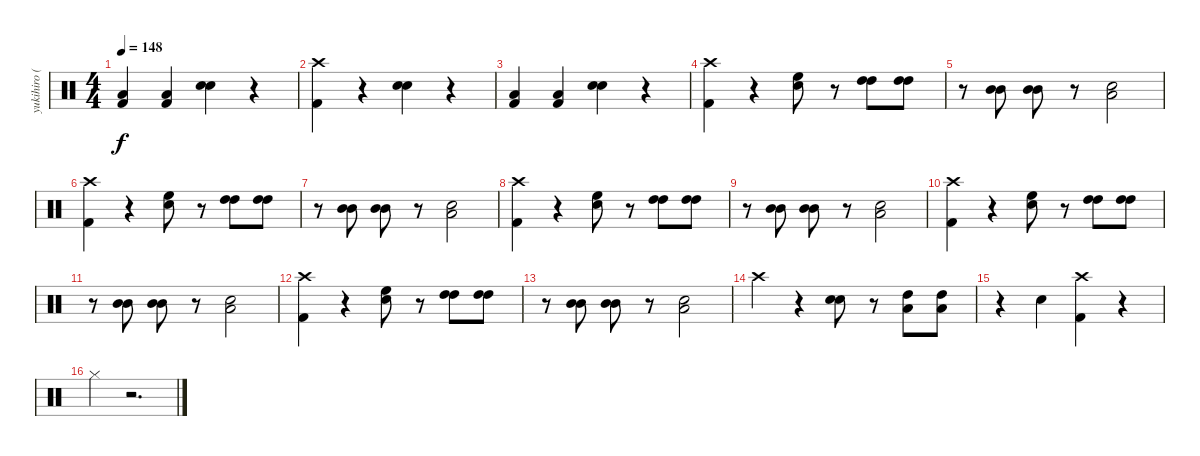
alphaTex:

\track ("yukihiro (Drums)" "yukihiro (") {instrument percussion}
\staff {score}
\articulation defaults
\ts (4 4)
\tempo 148
\clef neutral
\ks c
("Low Tom (hit)" "Kick (hit) 2").4{dy f} ("Low Tom (hit)" "Kick (hit) 2").4 ("Electric Snare (hit)" "Electric Snare (hit)").4 r.4 |
("Crash high (hit)" "Kick (hit) 2").4 r.4 ("Electric Snare (hit)" "Electric Snare (hit)").4 r.4 |
("Low Tom (hit)" "Kick (hit) 2").4 ("Low Tom (hit)" "Kick (hit) 2").4 ("Electric Snare (hit)" "Electric Snare (hit)").4 r.4 |
("Crash high (hit)" "Kick (hit) 2").4 r.4 ("High Floor Tom (hit)" "Electric Snare (hit)").8 r.8 ("High Tom (hit)" "High Tom (hit)").8 ("High Tom (hit)" "High Tom (hit)").8 |
r.8 ("Mid Tom (hit)" "Mid Tom (hit)").8 ("Mid Tom (hit)" "Mid Tom (hit)").8 r.8 ("Electric Snare (hit)" "Low Tom (hit)").2 |
("Crash high (hit)" "Kick (hit) 2").4 r.4 ("High Floor Tom (hit)" "Electric Snare (hit)").8 r.8 ("High Tom (hit)" "High Tom (hit)").8 ("High Tom (hit)" "High Tom (hit)").8 |
r.8 ("Mid Tom (hit)" "Mid Tom (hit)").8 ("Mid Tom (hit)" "Mid Tom (hit)").8 r.8 ("Electric Snare (hit)" "Low Tom (hit)").2 |
("Crash high (hit)" "Kick (hit) 2").4 r.4 ("High Floor Tom (hit)" "Electric Snare (hit)").8 r.8 ("High Tom (hit)" "High Tom (hit)").8 ("High Tom (hit)" "High Tom (hit)").8 |
r.8 ("Mid Tom (hit)" "Mid Tom (hit)").8 ("Mid Tom (hit)" "Mid Tom (hit)").8 r.8 ("Electric Snare (hit)" "Low Tom (hit)").2 |
("Crash high (hit)" "Kick (hit) 2").4 r.4 ("High Floor Tom (hit)" "Electric Snare (hit)").8 r.8 ("High Tom (hit)" "High Tom (hit)").8 ("High Tom (hit)" "High Tom (hit)").8 |
r.8 ("Mid Tom (hit)" "Mid Tom (hit)").8 ("Mid Tom (hit)" "Mid Tom (hit)").8 r.8 ("Electric Snare (hit)" "Low Tom (hit)").2 |
("Crash high (hit)" "Kick (hit) 2").4 r.4 ("High Floor Tom (hit)" "Electric Snare (hit)").8 r.8 ("High Tom (hit)" "High Tom (hit)").8 ("High Tom (hit)" "High Tom (hit)").8 |
r.8 ("Mid Tom (hit)" "Mid Tom (hit)").8 ("Mid Tom (hit)" "Mid Tom (hit)").8 r.8 ("Electric Snare (hit)" "Low Tom (hit)").2 |
"Crash high (hit)".4 r.4 ("Electric Snare (hit)" "Electric Snare (hit)").8 r.8 ("High Tom (hit)" "Low Tom (hit)").8 ("High Tom (hit)" "Low Tom (hit)").8 |
r.4 "Electric Snare (hit)".4 ("Crash high (hit)" "Kick (hit) 2").4 r.4 |
"Hi-Hat (closed)".4 r.2{d}
